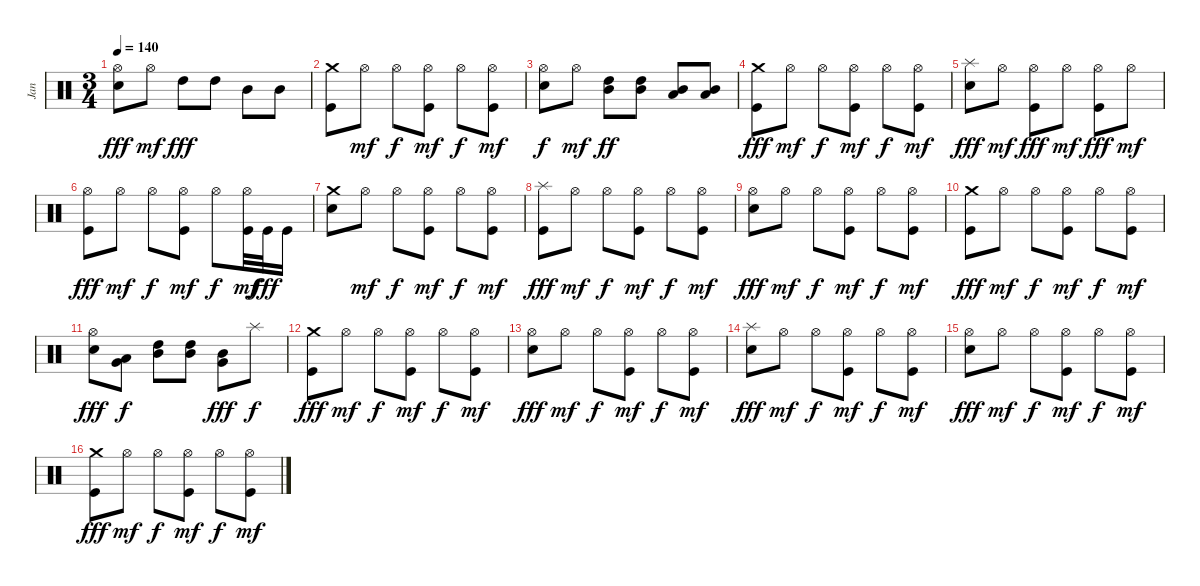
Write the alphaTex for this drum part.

\track ("Jan" "Jan") {instrument percussion}
\staff {score}
\articulation defaults
\ts (3 4)
\tempo 140
\clef neutral
\ks c
("Snare (hit) 2" "Hi-Hat (open)").8{dy fff} "Hi-Hat (open)".8{dy mf} "High Tom (hit)".8{dy fff} "High Tom (hit)".8 "Mid Tom (hit)".8 "Mid Tom (hit)".8 |
("Kick (hit)" "Crash medium (hit)").8 "Hi-Hat (open)".8{dy mf} "Hi-Hat (open)".8{dy f} ("Kick (hit)" "Hi-Hat (open)").8{dy mf} "Hi-Hat (open)".8{dy f} ("Kick (hit)" "Hi-Hat (open)").8{dy mf} |
("Snare (hit) 2" "Hi-Hat (open)").8{dy f} "Hi-Hat (open)".8{dy mf} ("Mid Tom (hit)" "High Tom (hit)").8{dy ff} ("Mid Tom (hit)" "High Tom (hit)").8 ("Low Tom (hit)" "Mid Tom (hit)").8 ("Low Tom (hit)" "Mid Tom (hit)").8 |
("Kick (hit)" "Crash medium (hit)").8{dy fff} "Hi-Hat (open)".8{dy mf} "Hi-Hat (open)".8{dy f} ("Kick (hit)" "Hi-Hat (open)").8{dy mf} "Hi-Hat (open)".8{dy f} ("Kick (hit)" "Hi-Hat (open)").8{dy mf} |
("Snare (hit) 2" "Splash (hit)").8{dy fff} "Hi-Hat (open)".8{dy mf} ("Kick (hit)" "Hi-Hat (open)").8{dy fff} "Hi-Hat (open)".8{dy mf} ("Kick (hit)" "Hi-Hat (open)").8{dy fff} "Hi-Hat (open)".8{dy mf} |
("Kick (hit)" "Hi-Hat (open)").8{dy fff} "Hi-Hat (open)".8{dy mf} "Hi-Hat (open)".8{dy f} ("Kick (hit)" "Hi-Hat (open)").8{dy mf} "Hi-Hat (open)".8{dy f} ("Kick (hit)" "Hi-Hat (open)").32{dy mf} "Kick (hit)".32{dy fff} "Kick (hit)".16 |
("Snare (hit) 2" "Crash medium (hit)").8 "Hi-Hat (open)".8{dy mf} "Hi-Hat (open)".8{dy f} ("Kick (hit)" "Hi-Hat (open)").8{dy mf} "Hi-Hat (open)".8{dy f} ("Kick (hit)" "Hi-Hat (open)").8{dy mf} |
("Kick (hit)" "Splash (hit)").8{dy fff} "Hi-Hat (open)".8{dy mf} "Hi-Hat (open)".8{dy f} ("Kick (hit)" "Hi-Hat (open)").8{dy mf} "Hi-Hat (open)".8{dy f} ("Kick (hit)" "Hi-Hat (open)").8{dy mf} |
("Snare (hit) 2" "Hi-Hat (open)").8{dy fff} "Hi-Hat (open)".8{dy mf} "Hi-Hat (open)".8{dy f} ("Kick (hit)" "Hi-Hat (open)").8{dy mf} "Hi-Hat (open)".8{dy f} ("Kick (hit)" "Hi-Hat (open)").8{dy mf} |
("Kick (hit)" "Crash medium (hit)").8{dy fff} "Hi-Hat (open)".8{dy mf} "Hi-Hat (open)".8{dy f} ("Kick (hit)" "Hi-Hat (open)").8{dy mf} "Hi-Hat (open)".8{dy f} ("Kick (hit)" "Hi-Hat (open)").8{dy mf} |
("Snare (hit) 2" "Hi-Hat (open)").8{dy fff} ("Very Low Tom (hit)" "Low Tom (hit)").8{dy f} ("High Tom (hit)" "Mid Tom (hit)").8 ("High Tom (hit)" "Mid Tom (hit)").8 ("Very Low Tom (hit)" "Mid Tom (hit)").8{dy fff} "Splash (hit)".8{dy f} |
("Kick (hit)" "Crash medium (hit)").8{dy fff} "Hi-Hat (open)".8{dy mf} "Hi-Hat (open)".8{dy f} ("Kick (hit)" "Hi-Hat (open)").8{dy mf} "Hi-Hat (open)".8{dy f} ("Kick (hit)" "Hi-Hat (open)").8{dy mf} |
("Snare (hit) 2" "Hi-Hat (open)").8{dy fff} "Hi-Hat (open)".8{dy mf} "Hi-Hat (open)".8{dy f} ("Kick (hit)" "Hi-Hat (open)").8{dy mf} "Hi-Hat (open)".8{dy f} ("Kick (hit)" "Hi-Hat (open)").8{dy mf} |
("Snare (hit) 2" "Splash (hit)").8{dy fff} "Hi-Hat (open)".8{dy mf} "Hi-Hat (open)".8{dy f} ("Kick (hit)" "Hi-Hat (open)").8{dy mf} "Hi-Hat (open)".8{dy f} ("Kick (hit)" "Hi-Hat (open)").8{dy mf} |
("Snare (hit) 2" "Hi-Hat (open)").8{dy fff} "Hi-Hat (open)".8{dy mf} "Hi-Hat (open)".8{dy f} ("Kick (hit)" "Hi-Hat (open)").8{dy mf} "Hi-Hat (open)".8{dy f} ("Kick (hit)" "Hi-Hat (open)").8{dy mf} |
("Kick (hit)" "Crash medium (hit)").8{dy fff} "Hi-Hat (open)".8{dy mf} "Hi-Hat (open)".8{dy f} ("Kick (hit)" "Hi-Hat (open)").8{dy mf} "Hi-Hat (open)".8{dy f} ("Kick (hit)" "Hi-Hat (open)").8{dy mf}
